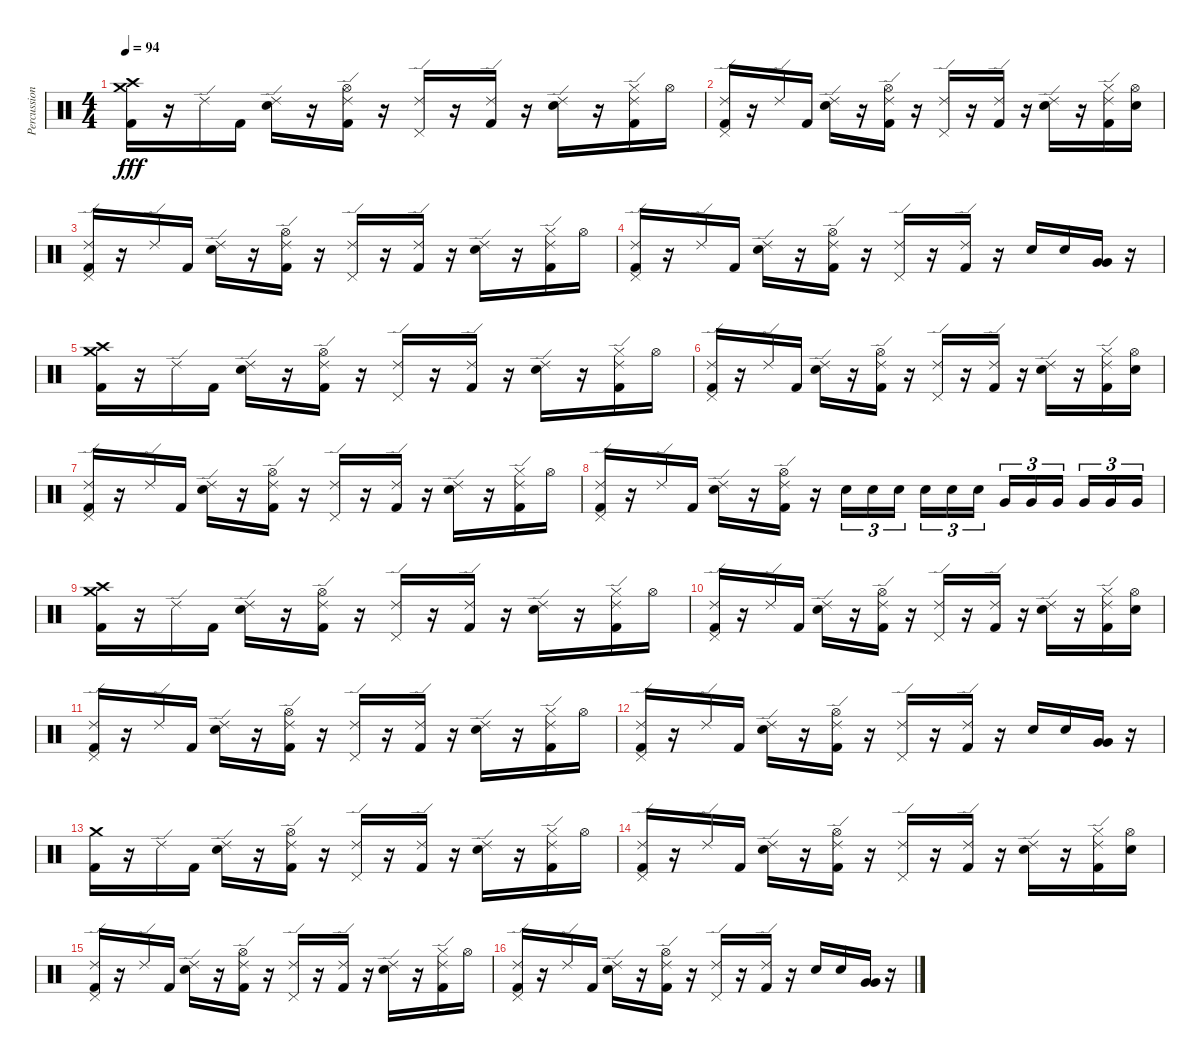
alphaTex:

\track ("Percussions" "Percussion") {instrument percussion}
\staff {score}
\articulation defaults
\ts (4 4)
\tempo 94
\clef neutral
\ks c
("Crash medium (hit)" "Crash high (hit)" "Kick (hit) 2").16{dy fff} r.16 "Ride (edge) 2".16 "Kick (hit) 2".16 ("Ride (edge) 2" "Electric Snare (hit)").16 r.16 ("Ride (edge) 2" "Hi-Hat (open)" "Kick (hit) 2").16 r.16 ("Ride (edge) 2" "Pedal Hi-Hat (hit)").16 r.16 ("Ride (edge) 2" "Kick (hit) 2").16 r.16 ("Ride (edge) 2" "Electric Snare (hit)").16 r.16 ("Ride (edge) 2" "Hi-Hat (closed)" "Kick (hit) 2").16 "Hi-Hat (open)".16 |
("Ride (edge) 2" "Pedal Hi-Hat (hit)" "Kick (hit) 2").16 r.16 "Ride (edge) 2".16 "Kick (hit) 2".16 ("Ride (edge) 2" "Electric Snare (hit)").16 r.16 ("Ride (edge) 2" "Hi-Hat (open)" "Kick (hit) 2").16 r.16 ("Ride (edge) 2" "Pedal Hi-Hat (hit)").16 r.16 ("Ride (edge) 2" "Kick (hit) 2").16 r.16 ("Ride (edge) 2" "Electric Snare (hit)").16 r.16 ("Ride (edge) 2" "Hi-Hat (closed)" "Kick (hit) 2").16 ("Hi-Hat (open)" "Electric Snare (hit)").16 |
("Ride (edge) 2" "Pedal Hi-Hat (hit)" "Kick (hit) 2").16 r.16 "Ride (edge) 2".16 "Kick (hit) 2".16 ("Ride (edge) 2" "Electric Snare (hit)").16 r.16 ("Ride (edge) 2" "Hi-Hat (open)" "Kick (hit) 2").16 r.16 ("Ride (edge) 2" "Pedal Hi-Hat (hit)").16 r.16 ("Ride (edge) 2" "Kick (hit) 2").16 r.16 ("Ride (edge) 2" "Electric Snare (hit)").16 r.16 ("Ride (edge) 2" "Hi-Hat (closed)" "Kick (hit) 2").16 "Hi-Hat (open)".16 |
("Ride (edge) 2" "Pedal Hi-Hat (hit)" "Kick (hit) 2").16 r.16 "Ride (edge) 2".16 "Kick (hit) 2".16 ("Ride (edge) 2" "Electric Snare (hit)").16 r.16 ("Ride (edge) 2" "Hi-Hat (open)" "Kick (hit) 2").16 r.16 ("Ride (edge) 2" "Pedal Hi-Hat (hit)").16 r.16 ("Ride (edge) 2" "Kick (hit) 2").16 r.16 "Electric Snare (hit)".16 "Electric Snare (hit)".16 ("Very Low Tom (hit)" "Very Low Tom (hit)").16 r.16 |
("Crash medium (hit)" "Crash high (hit)" "Kick (hit) 2").16 r.16 "Ride (edge) 2".16 "Kick (hit) 2".16 ("Ride (edge) 2" "Electric Snare (hit)").16 r.16 ("Ride (edge) 2" "Hi-Hat (open)" "Kick (hit) 2").16 r.16 ("Ride (edge) 2" "Pedal Hi-Hat (hit)").16 r.16 ("Ride (edge) 2" "Kick (hit) 2").16 r.16 ("Ride (edge) 2" "Electric Snare (hit)").16 r.16 ("Ride (edge) 2" "Hi-Hat (closed)" "Kick (hit) 2").16 "Hi-Hat (open)".16 |
("Ride (edge) 2" "Pedal Hi-Hat (hit)" "Kick (hit) 2").16 r.16 "Ride (edge) 2".16 "Kick (hit) 2".16 ("Ride (edge) 2" "Electric Snare (hit)").16 r.16 ("Ride (edge) 2" "Hi-Hat (open)" "Kick (hit) 2").16 r.16 ("Ride (edge) 2" "Pedal Hi-Hat (hit)").16 r.16 ("Ride (edge) 2" "Kick (hit) 2").16 r.16 ("Ride (edge) 2" "Electric Snare (hit)").16 r.16 ("Ride (edge) 2" "Hi-Hat (closed)" "Kick (hit) 2").16 ("Hi-Hat (open)" "Electric Snare (hit)").16 |
("Ride (edge) 2" "Pedal Hi-Hat (hit)" "Kick (hit) 2").16 r.16 "Ride (edge) 2".16 "Kick (hit) 2".16 ("Ride (edge) 2" "Electric Snare (hit)").16 r.16 ("Ride (edge) 2" "Hi-Hat (open)" "Kick (hit) 2").16 r.16 ("Ride (edge) 2" "Pedal Hi-Hat (hit)").16 r.16 ("Ride (edge) 2" "Kick (hit) 2").16 r.16 ("Ride (edge) 2" "Electric Snare (hit)").16 r.16 ("Ride (edge) 2" "Hi-Hat (closed)" "Kick (hit) 2").16 "Hi-Hat (open)".16 |
("Ride (edge) 2" "Pedal Hi-Hat (hit)" "Kick (hit) 2").16 r.16 "Ride (edge) 2".16 "Kick (hit) 2".16 ("Ride (edge) 2" "Electric Snare (hit)").16 r.16 ("Ride (edge) 2" "Hi-Hat (open)" "Kick (hit) 2").16 r.16 "Electric Snare (hit)".16{tu (3 2)} "Electric Snare (hit)".16{tu (3 2)} "Electric Snare (hit)".16{tu (3 2)} "Electric Snare (hit)".16{tu (3 2)} "Electric Snare (hit)".16{tu (3 2)} "Electric Snare (hit)".16{tu (3 2)} "Very Low Tom (hit)".16{tu (3 2)} "Very Low Tom (hit)".16{tu (3 2)} "Very Low Tom (hit)".16{tu (3 2)} "Very Low Tom (hit)".16{tu (3 2)} "Very Low Tom (hit)".16{tu (3 2)} "Very Low Tom (hit)".16{tu (3 2)} |
("Crash medium (hit)" "Crash high (hit)" "Kick (hit) 2").16 r.16 "Ride (edge) 2".16 "Kick (hit) 2".16 ("Ride (edge) 2" "Electric Snare (hit)").16 r.16 ("Ride (edge) 2" "Hi-Hat (open)" "Kick (hit) 2").16 r.16 ("Ride (edge) 2" "Pedal Hi-Hat (hit)").16 r.16 ("Ride (edge) 2" "Kick (hit) 2").16 r.16 ("Ride (edge) 2" "Electric Snare (hit)").16 r.16 ("Ride (edge) 2" "Hi-Hat (closed)" "Kick (hit) 2").16 "Hi-Hat (open)".16 |
("Ride (edge) 2" "Pedal Hi-Hat (hit)" "Kick (hit) 2").16 r.16 "Ride (edge) 2".16 "Kick (hit) 2".16 ("Ride (edge) 2" "Electric Snare (hit)").16 r.16 ("Ride (edge) 2" "Hi-Hat (open)" "Kick (hit) 2").16 r.16 ("Ride (edge) 2" "Pedal Hi-Hat (hit)").16 r.16 ("Ride (edge) 2" "Kick (hit) 2").16 r.16 ("Ride (edge) 2" "Electric Snare (hit)").16 r.16 ("Ride (edge) 2" "Hi-Hat (closed)" "Kick (hit) 2").16 ("Hi-Hat (open)" "Electric Snare (hit)").16 |
("Ride (edge) 2" "Pedal Hi-Hat (hit)" "Kick (hit) 2").16 r.16 "Ride (edge) 2".16 "Kick (hit) 2".16 ("Ride (edge) 2" "Electric Snare (hit)").16 r.16 ("Ride (edge) 2" "Hi-Hat (open)" "Kick (hit) 2").16 r.16 ("Ride (edge) 2" "Pedal Hi-Hat (hit)").16 r.16 ("Ride (edge) 2" "Kick (hit) 2").16 r.16 ("Ride (edge) 2" "Electric Snare (hit)").16 r.16 ("Ride (edge) 2" "Hi-Hat (closed)" "Kick (hit) 2").16 "Hi-Hat (open)".16 |
("Ride (edge) 2" "Pedal Hi-Hat (hit)" "Kick (hit) 2").16 r.16 "Ride (edge) 2".16 "Kick (hit) 2".16 ("Ride (edge) 2" "Electric Snare (hit)").16 r.16 ("Ride (edge) 2" "Hi-Hat (open)" "Kick (hit) 2").16 r.16 ("Ride (edge) 2" "Pedal Hi-Hat (hit)").16 r.16 ("Ride (edge) 2" "Kick (hit) 2").16 r.16 "Electric Snare (hit)".16 "Electric Snare (hit)".16 ("Very Low Tom (hit)" "Very Low Tom (hit)").16 r.16 |
("Crash medium (hit)" "Kick (hit) 2").16 r.16 "Ride (edge) 2".16 "Kick (hit) 2".16 ("Ride (edge) 2" "Electric Snare (hit)").16 r.16 ("Ride (edge) 2" "Hi-Hat (open)" "Kick (hit) 2").16 r.16 ("Ride (edge) 2" "Pedal Hi-Hat (hit)").16 r.16 ("Ride (edge) 2" "Kick (hit) 2").16 r.16 ("Ride (edge) 2" "Electric Snare (hit)").16 r.16 ("Ride (edge) 2" "Hi-Hat (closed)" "Kick (hit) 2").16 "Hi-Hat (open)".16 |
("Ride (edge) 2" "Pedal Hi-Hat (hit)" "Kick (hit) 2").16 r.16 "Ride (edge) 2".16 "Kick (hit) 2".16 ("Ride (edge) 2" "Electric Snare (hit)").16 r.16 ("Ride (edge) 2" "Hi-Hat (open)" "Kick (hit) 2").16 r.16 ("Ride (edge) 2" "Pedal Hi-Hat (hit)").16 r.16 ("Ride (edge) 2" "Kick (hit) 2").16 r.16 ("Ride (edge) 2" "Electric Snare (hit)").16 r.16 ("Ride (edge) 2" "Hi-Hat (closed)" "Kick (hit) 2").16 ("Hi-Hat (open)" "Electric Snare (hit)").16 |
("Ride (edge) 2" "Pedal Hi-Hat (hit)" "Kick (hit) 2").16 r.16 "Ride (edge) 2".16 "Kick (hit) 2".16 ("Ride (edge) 2" "Electric Snare (hit)").16 r.16 ("Ride (edge) 2" "Hi-Hat (open)" "Kick (hit) 2").16 r.16 ("Ride (edge) 2" "Pedal Hi-Hat (hit)").16 r.16 ("Ride (edge) 2" "Kick (hit) 2").16 r.16 ("Ride (edge) 2" "Electric Snare (hit)").16 r.16 ("Ride (edge) 2" "Hi-Hat (closed)" "Kick (hit) 2").16 "Hi-Hat (open)".16 |
("Ride (edge) 2" "Pedal Hi-Hat (hit)" "Kick (hit) 2").16 r.16 "Ride (edge) 2".16 "Kick (hit) 2".16 ("Ride (edge) 2" "Electric Snare (hit)").16 r.16 ("Ride (edge) 2" "Hi-Hat (open)" "Kick (hit) 2").16 r.16 ("Ride (edge) 2" "Pedal Hi-Hat (hit)").16 r.16 ("Ride (edge) 2" "Kick (hit) 2").16 r.16 "Electric Snare (hit)".16 "Electric Snare (hit)".16 ("Very Low Tom (hit)" "Very Low Tom (hit)").16 r.16
